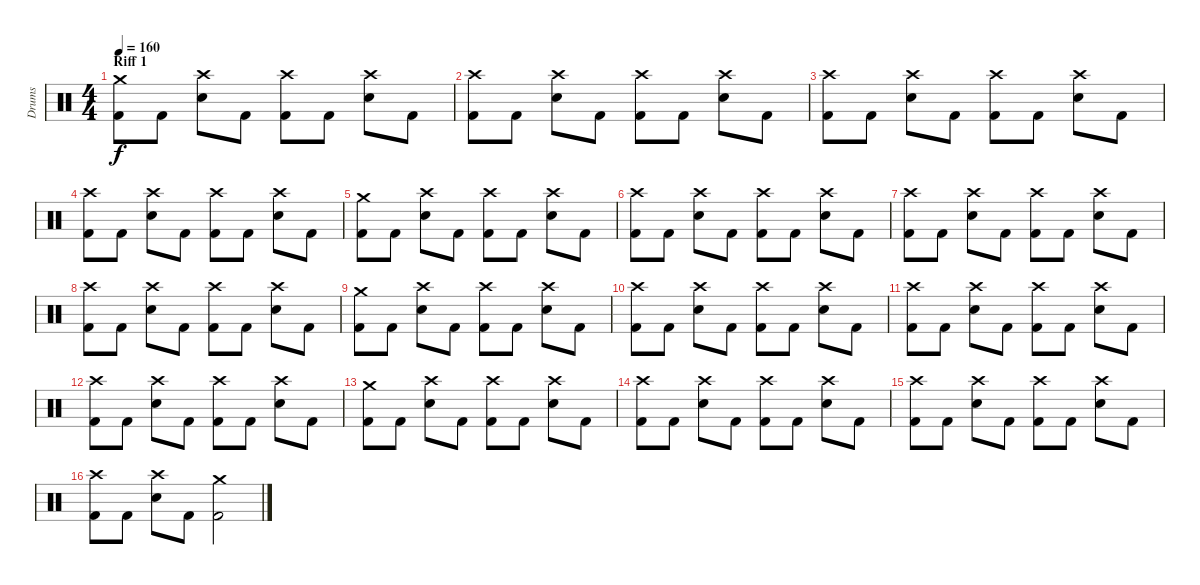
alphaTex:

\track ("Drums" "Drums") {instrument percussion}
\staff {score}
\articulation defaults
\ts (4 4)
\section ("" "Riff 1")
\tempo 160
\clef neutral
\ks c
("Crash medium (hit)" "Kick (hit) 2").8{dy f} "Kick (hit) 2".8 ("Crash high (hit)" "Electric Snare (hit)").8 "Kick (hit) 2".8 ("Crash high (hit)" "Kick (hit) 2").8 "Kick (hit) 2".8 ("Crash high (hit)" "Electric Snare (hit)").8 "Kick (hit) 2".8 |
("Crash high (hit)" "Kick (hit) 2").8 "Kick (hit) 2".8 ("Crash high (hit)" "Electric Snare (hit)").8 "Kick (hit) 2".8 ("Crash high (hit)" "Kick (hit) 2").8 "Kick (hit) 2".8 ("Crash high (hit)" "Electric Snare (hit)").8 "Kick (hit) 2".8 |
("Crash high (hit)" "Kick (hit) 2").8 "Kick (hit) 2".8 ("Crash high (hit)" "Electric Snare (hit)").8 "Kick (hit) 2".8 ("Crash high (hit)" "Kick (hit) 2").8 "Kick (hit) 2".8 ("Crash high (hit)" "Electric Snare (hit)").8 "Kick (hit) 2".8 |
("Crash high (hit)" "Kick (hit) 2").8 "Kick (hit) 2".8 ("Crash high (hit)" "Electric Snare (hit)").8 "Kick (hit) 2".8 ("Crash high (hit)" "Kick (hit) 2").8 "Kick (hit) 2".8 ("Crash high (hit)" "Electric Snare (hit)").8 "Kick (hit) 2".8 |
("Crash medium (hit)" "Kick (hit) 2").8 "Kick (hit) 2".8 ("Crash high (hit)" "Electric Snare (hit)").8 "Kick (hit) 2".8 ("Crash high (hit)" "Kick (hit) 2").8 "Kick (hit) 2".8 ("Crash high (hit)" "Electric Snare (hit)").8 "Kick (hit) 2".8 |
("Crash high (hit)" "Kick (hit) 2").8 "Kick (hit) 2".8 ("Crash high (hit)" "Electric Snare (hit)").8 "Kick (hit) 2".8 ("Crash high (hit)" "Kick (hit) 2").8 "Kick (hit) 2".8 ("Crash high (hit)" "Electric Snare (hit)").8 "Kick (hit) 2".8 |
("Crash high (hit)" "Kick (hit) 2").8 "Kick (hit) 2".8 ("Crash high (hit)" "Electric Snare (hit)").8 "Kick (hit) 2".8 ("Crash high (hit)" "Kick (hit) 2").8 "Kick (hit) 2".8 ("Crash high (hit)" "Electric Snare (hit)").8 "Kick (hit) 2".8 |
("Crash high (hit)" "Kick (hit) 2").8 "Kick (hit) 2".8 ("Crash high (hit)" "Electric Snare (hit)").8 "Kick (hit) 2".8 ("Crash high (hit)" "Kick (hit) 2").8 "Kick (hit) 2".8 ("Crash high (hit)" "Electric Snare (hit)").8 "Kick (hit) 2".8 |
("Crash medium (hit)" "Kick (hit) 2").8 "Kick (hit) 2".8 ("Crash high (hit)" "Electric Snare (hit)").8 "Kick (hit) 2".8 ("Crash high (hit)" "Kick (hit) 2").8 "Kick (hit) 2".8 ("Crash high (hit)" "Electric Snare (hit)").8 "Kick (hit) 2".8 |
("Crash high (hit)" "Kick (hit) 2").8 "Kick (hit) 2".8 ("Crash high (hit)" "Electric Snare (hit)").8 "Kick (hit) 2".8 ("Crash high (hit)" "Kick (hit) 2").8 "Kick (hit) 2".8 ("Crash high (hit)" "Electric Snare (hit)").8 "Kick (hit) 2".8 |
("Crash high (hit)" "Kick (hit) 2").8 "Kick (hit) 2".8 ("Crash high (hit)" "Electric Snare (hit)").8 "Kick (hit) 2".8 ("Crash high (hit)" "Kick (hit) 2").8 "Kick (hit) 2".8 ("Crash high (hit)" "Electric Snare (hit)").8 "Kick (hit) 2".8 |
("Crash high (hit)" "Kick (hit) 2").8 "Kick (hit) 2".8 ("Crash high (hit)" "Electric Snare (hit)").8 "Kick (hit) 2".8 ("Crash high (hit)" "Kick (hit) 2").8 "Kick (hit) 2".8 ("Crash high (hit)" "Electric Snare (hit)").8 "Kick (hit) 2".8 |
("Crash medium (hit)" "Kick (hit) 2").8 "Kick (hit) 2".8 ("Crash high (hit)" "Electric Snare (hit)").8 "Kick (hit) 2".8 ("Crash high (hit)" "Kick (hit) 2").8 "Kick (hit) 2".8 ("Crash high (hit)" "Electric Snare (hit)").8 "Kick (hit) 2".8 |
("Crash high (hit)" "Kick (hit) 2").8 "Kick (hit) 2".8 ("Crash high (hit)" "Electric Snare (hit)").8 "Kick (hit) 2".8 ("Crash high (hit)" "Kick (hit) 2").8 "Kick (hit) 2".8 ("Crash high (hit)" "Electric Snare (hit)").8 "Kick (hit) 2".8 |
("Crash high (hit)" "Kick (hit) 2").8 "Kick (hit) 2".8 ("Crash high (hit)" "Electric Snare (hit)").8 "Kick (hit) 2".8 ("Crash high (hit)" "Kick (hit) 2").8 "Kick (hit) 2".8 ("Crash high (hit)" "Electric Snare (hit)").8 "Kick (hit) 2".8 |
("Crash high (hit)" "Kick (hit) 2").8 "Kick (hit) 2".8 ("Crash high (hit)" "Electric Snare (hit)").8 "Kick (hit) 2".8 ("Crash medium (hit)" "Kick (hit) 2").2
